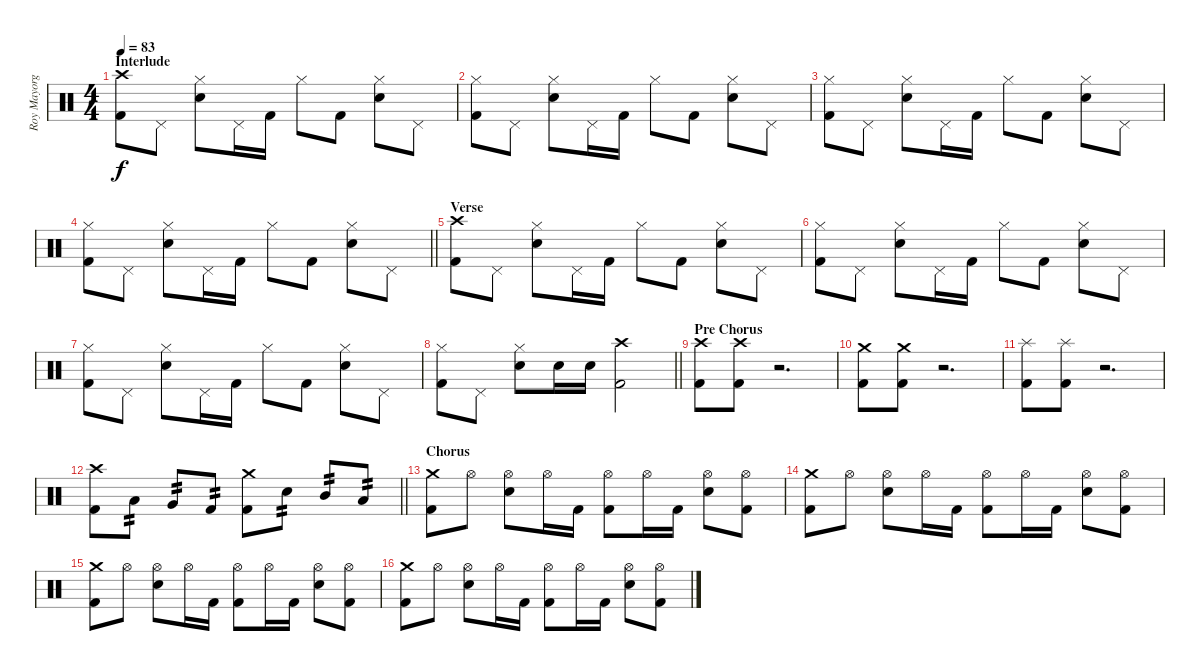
\track ("Roy Mayorga" "Roy Mayorg") {instrument percussion}
\staff {score}
\articulation defaults
\ts (4 4)
\section ("" "Interlude")
\tempo 83
\clef neutral
\ks c
("Crash high (hit)" "Kick (hit) 2").8{dy f} "Pedal Hi-Hat (hit)".8 ("Hi-Hat (closed)" "Electric Snare (hit)").8 "Pedal Hi-Hat (hit)".16 "Kick (hit) 2".16 "Hi-Hat (closed)".8 "Kick (hit) 2".8 ("Electric Snare (hit)" "Hi-Hat (closed)").8 "Pedal Hi-Hat (hit)".8 |
("Hi-Hat (closed)" "Kick (hit) 2").8 "Pedal Hi-Hat (hit)".8 ("Hi-Hat (closed)" "Electric Snare (hit)").8 "Pedal Hi-Hat (hit)".16 "Kick (hit) 2".16 "Hi-Hat (closed)".8 "Kick (hit) 2".8 ("Electric Snare (hit)" "Hi-Hat (closed)").8 "Pedal Hi-Hat (hit)".8 |
("Hi-Hat (closed)" "Kick (hit) 2").8 "Pedal Hi-Hat (hit)".8 ("Hi-Hat (closed)" "Electric Snare (hit)").8 "Pedal Hi-Hat (hit)".16 "Kick (hit) 2".16 "Hi-Hat (closed)".8 "Kick (hit) 2".8 ("Electric Snare (hit)" "Hi-Hat (closed)").8 "Pedal Hi-Hat (hit)".8 |
\barLineRight lightlight
("Hi-Hat (closed)" "Kick (hit) 2").8 "Pedal Hi-Hat (hit)".8 ("Hi-Hat (closed)" "Electric Snare (hit)").8 "Pedal Hi-Hat (hit)".16 "Kick (hit) 2".16 "Hi-Hat (closed)".8 "Kick (hit) 2".8 ("Electric Snare (hit)" "Hi-Hat (closed)").8 "Pedal Hi-Hat (hit)".8 |
\section ("" "Verse")
("Crash high (hit)" "Kick (hit) 2").8 "Pedal Hi-Hat (hit)".8 ("Hi-Hat (closed)" "Electric Snare (hit)").8 "Pedal Hi-Hat (hit)".16 "Kick (hit) 2".16 "Hi-Hat (closed)".8 "Kick (hit) 2".8 ("Electric Snare (hit)" "Hi-Hat (closed)").8 "Pedal Hi-Hat (hit)".8 |
("Hi-Hat (closed)" "Kick (hit) 2").8 "Pedal Hi-Hat (hit)".8 ("Hi-Hat (closed)" "Electric Snare (hit)").8 "Pedal Hi-Hat (hit)".16 "Kick (hit) 2".16 "Hi-Hat (closed)".8 "Kick (hit) 2".8 ("Electric Snare (hit)" "Hi-Hat (closed)").8 "Pedal Hi-Hat (hit)".8 |
("Hi-Hat (closed)" "Kick (hit) 2").8 "Pedal Hi-Hat (hit)".8 ("Hi-Hat (closed)" "Electric Snare (hit)").8 "Pedal Hi-Hat (hit)".16 "Kick (hit) 2".16 "Hi-Hat (closed)".8 "Kick (hit) 2".8 ("Electric Snare (hit)" "Hi-Hat (closed)").8 "Pedal Hi-Hat (hit)".8 |
\barLineRight lightlight
("Hi-Hat (closed)" "Kick (hit) 2").8 "Pedal Hi-Hat (hit)".8 ("Hi-Hat (closed)" "Electric Snare (hit)").8 "Electric Snare (hit)".16 "Electric Snare (hit)".16 ("Kick (hit) 2" "Crash high (hit)").2 |
\section ("" "Pre Chorus")
("Crash high (hit)" "Kick (hit) 2").8 ("Crash high (hit)" "Kick (hit) 2").8 r.2{d} |
("Crash medium (hit)" "Kick (hit) 2").8 ("Crash medium (hit)" "Kick (hit) 2").8 r.2{d} |
("Splash (hit)" "Kick (hit) 2").8 ("Splash (hit)" "Kick (hit) 2").8 r.2{d} |
\barLineRight lightlight
("Crash high (hit)" "Kick (hit) 2").8 "Low Floor Tom (hit)".8{tp 2} "Very Low Tom (hit)".8{tp 2} "Kick (hit) 2".8{tp 2} ("Crash medium (hit)" "Kick (hit) 2").8 "Electric Snare (hit)".8{tp 2} "Mid Tom (hit)".8{tp 2} "Low Tom (hit)".8{tp 2} |
\section ("" "Chorus")
("Crash medium (hit)" "Kick (hit) 2").8 "Hi-Hat (open)".8 ("Hi-Hat (open)" "Electric Snare (hit)").8 "Hi-Hat (open)".16 "Kick (hit) 2".16 ("Kick (hit) 2" "Hi-Hat (open)").8 "Hi-Hat (open)".16 "Kick (hit) 2".16 ("Electric Snare (hit)" "Hi-Hat (open)").8 ("Hi-Hat (open)" "Kick (hit) 2").8 |
("Crash medium (hit)" "Kick (hit) 2").8 "Hi-Hat (open)".8 ("Hi-Hat (open)" "Electric Snare (hit)").8 "Hi-Hat (open)".16 "Kick (hit) 2".16 ("Kick (hit) 2" "Hi-Hat (open)").8 "Hi-Hat (open)".16 "Kick (hit) 2".16 ("Electric Snare (hit)" "Hi-Hat (open)").8 ("Hi-Hat (open)" "Kick (hit) 2").8 |
("Crash medium (hit)" "Kick (hit) 2").8 "Hi-Hat (open)".8 ("Hi-Hat (open)" "Electric Snare (hit)").8 "Hi-Hat (open)".16 "Kick (hit) 2".16 ("Kick (hit) 2" "Hi-Hat (open)").8 "Hi-Hat (open)".16 "Kick (hit) 2".16 ("Electric Snare (hit)" "Hi-Hat (open)").8 ("Hi-Hat (open)" "Kick (hit) 2").8 |
("Crash medium (hit)" "Kick (hit) 2").8 "Hi-Hat (open)".8 ("Hi-Hat (open)" "Electric Snare (hit)").8 "Hi-Hat (open)".16 "Kick (hit) 2".16 ("Kick (hit) 2" "Hi-Hat (open)").8 "Hi-Hat (open)".16 "Kick (hit) 2".16 ("Electric Snare (hit)" "Hi-Hat (open)").8 ("Hi-Hat (open)" "Kick (hit) 2").8
